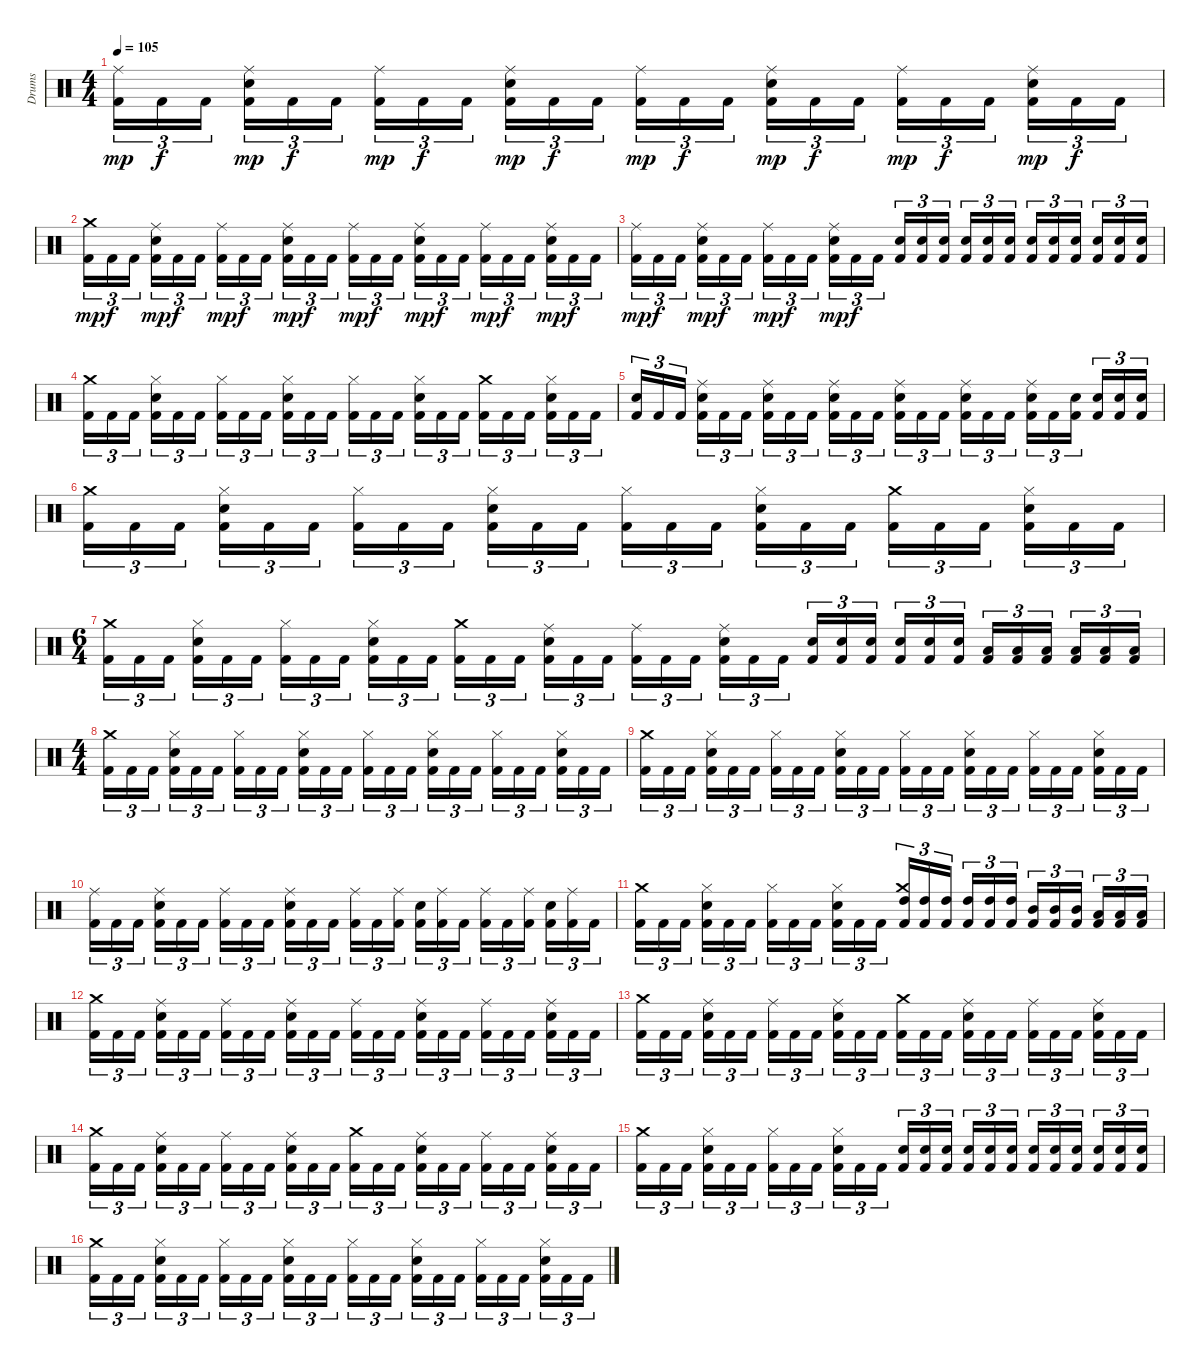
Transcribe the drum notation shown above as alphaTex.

\track ("Drums" "Drums") {instrument percussion}
\staff {score}
\articulation defaults
\ts (4 4)
\tempo 105
\clef neutral
\ks c
("Ride (middle)" "Kick (hit) 2").16{tu (3 2) dy mp} "Kick (hit) 2".16{tu (3 2) dy f} "Kick (hit) 2".16{tu (3 2)} ("Ride (middle)" "Electric Snare (hit)" "Kick (hit) 2").16{tu (3 2) dy mp} "Kick (hit) 2".16{tu (3 2) dy f} "Kick (hit) 2".16{tu (3 2)} ("Ride (middle)" "Kick (hit) 2").16{tu (3 2) dy mp} "Kick (hit) 2".16{tu (3 2) dy f} "Kick (hit) 2".16{tu (3 2)} ("Ride (middle)" "Electric Snare (hit)" "Kick (hit) 2").16{tu (3 2) dy mp} "Kick (hit) 2".16{tu (3 2) dy f} "Kick (hit) 2".16{tu (3 2)} ("Ride (middle)" "Kick (hit) 2").16{tu (3 2) dy mp} "Kick (hit) 2".16{tu (3 2) dy f} "Kick (hit) 2".16{tu (3 2)} ("Ride (middle)" "Electric Snare (hit)" "Kick (hit) 2").16{tu (3 2) dy mp} "Kick (hit) 2".16{tu (3 2) dy f} "Kick (hit) 2".16{tu (3 2)} ("Ride (middle)" "Kick (hit) 2").16{tu (3 2) dy mp} "Kick (hit) 2".16{tu (3 2) dy f} "Kick (hit) 2".16{tu (3 2)} ("Ride (middle)" "Electric Snare (hit)" "Kick (hit) 2").16{tu (3 2) dy mp} "Kick (hit) 2".16{tu (3 2) dy f} "Kick (hit) 2".16{tu (3 2)} |
("Crash medium (hit)" "Kick (hit) 2").16{tu (3 2) dy mp} "Kick (hit) 2".16{tu (3 2) dy f} "Kick (hit) 2".16{tu (3 2)} ("Ride (middle)" "Electric Snare (hit)" "Kick (hit) 2").16{tu (3 2) dy mp} "Kick (hit) 2".16{tu (3 2) dy f} "Kick (hit) 2".16{tu (3 2)} ("Ride (middle)" "Kick (hit) 2").16{tu (3 2) dy mp} "Kick (hit) 2".16{tu (3 2) dy f} "Kick (hit) 2".16{tu (3 2)} ("Ride (middle)" "Electric Snare (hit)" "Kick (hit) 2").16{tu (3 2) dy mp} "Kick (hit) 2".16{tu (3 2) dy f} "Kick (hit) 2".16{tu (3 2)} ("Ride (middle)" "Kick (hit) 2").16{tu (3 2) dy mp} "Kick (hit) 2".16{tu (3 2) dy f} "Kick (hit) 2".16{tu (3 2)} ("Ride (middle)" "Electric Snare (hit)" "Kick (hit) 2").16{tu (3 2) dy mp} "Kick (hit) 2".16{tu (3 2) dy f} "Kick (hit) 2".16{tu (3 2)} ("Ride (middle)" "Kick (hit) 2").16{tu (3 2) dy mp} "Kick (hit) 2".16{tu (3 2) dy f} "Kick (hit) 2".16{tu (3 2)} ("Ride (middle)" "Electric Snare (hit)" "Kick (hit) 2").16{tu (3 2) dy mp} "Kick (hit) 2".16{tu (3 2) dy f} "Kick (hit) 2".16{tu (3 2)} |
("Ride (middle)" "Kick (hit) 2").16{tu (3 2) dy mp} "Kick (hit) 2".16{tu (3 2) dy f} "Kick (hit) 2".16{tu (3 2)} ("Ride (middle)" "Electric Snare (hit)" "Kick (hit) 2").16{tu (3 2) dy mp} "Kick (hit) 2".16{tu (3 2) dy f} "Kick (hit) 2".16{tu (3 2)} ("Ride (middle)" "Kick (hit) 2").16{tu (3 2) dy mp} "Kick (hit) 2".16{tu (3 2) dy f} "Kick (hit) 2".16{tu (3 2)} ("Ride (middle)" "Electric Snare (hit)" "Kick (hit) 2").16{tu (3 2) dy mp} "Kick (hit) 2".16{tu (3 2) dy f} "Kick (hit) 2".16{tu (3 2)} ("Electric Snare (hit)" "Kick (hit) 2").16{tu (3 2)} ("Electric Snare (hit)" "Kick (hit) 2").16{tu (3 2)} ("Electric Snare (hit)" "Kick (hit) 2").16{tu (3 2)} ("Electric Snare (hit)" "Kick (hit) 2").16{tu (3 2)} ("Electric Snare (hit)" "Kick (hit) 2").16{tu (3 2)} ("Electric Snare (hit)" "Kick (hit) 2").16{tu (3 2)} ("Electric Snare (hit)" "Kick (hit) 2").16{tu (3 2)} ("Electric Snare (hit)" "Kick (hit) 2").16{tu (3 2)} ("Electric Snare (hit)" "Kick (hit) 2").16{tu (3 2)} ("Electric Snare (hit)" "Kick (hit) 2").16{tu (3 2)} ("Electric Snare (hit)" "Kick (hit) 2").16{tu (3 2)} ("Electric Snare (hit)" "Kick (hit) 2").16{tu (3 2)} |
("Crash medium (hit)" "Kick (hit) 2").16{tu (3 2)} "Kick (hit) 2".16{tu (3 2)} "Kick (hit) 2".16{tu (3 2)} ("Hi-Hat (closed)" "Electric Snare (hit)" "Kick (hit) 2").16{tu (3 2)} "Kick (hit) 2".16{tu (3 2)} "Kick (hit) 2".16{tu (3 2)} ("Hi-Hat (closed)" "Kick (hit) 2").16{tu (3 2)} "Kick (hit) 2".16{tu (3 2)} "Kick (hit) 2".16{tu (3 2)} ("Hi-Hat (closed)" "Electric Snare (hit)" "Kick (hit) 2").16{tu (3 2)} "Kick (hit) 2".16{tu (3 2)} "Kick (hit) 2".16{tu (3 2)} ("Hi-Hat (closed)" "Kick (hit) 2").16{tu (3 2)} "Kick (hit) 2".16{tu (3 2)} "Kick (hit) 2".16{tu (3 2)} ("Hi-Hat (closed)" "Electric Snare (hit)" "Kick (hit) 2").16{tu (3 2)} "Kick (hit) 2".16{tu (3 2)} "Kick (hit) 2".16{tu (3 2)} ("Crash medium (hit)" "Kick (hit) 2").16{tu (3 2)} "Kick (hit) 2".16{tu (3 2)} "Kick (hit) 2".16{tu (3 2)} ("Hi-Hat (closed)" "Electric Snare (hit)" "Kick (hit) 2").16{tu (3 2)} "Kick (hit) 2".16{tu (3 2)} "Kick (hit) 2".16{tu (3 2)} |
("Electric Snare (hit)" "Kick (hit) 2").16{tu (3 2)} "Kick (hit) 2".16{tu (3 2)} "Kick (hit) 2".16{tu (3 2)} ("Ride (middle)" "Electric Snare (hit)" "Kick (hit) 2").16{tu (3 2)} "Kick (hit) 2".16{tu (3 2)} "Kick (hit) 2".16{tu (3 2)} ("Ride (middle)" "Electric Snare (hit)" "Kick (hit) 2").16{tu (3 2)} "Kick (hit) 2".16{tu (3 2)} "Kick (hit) 2".16{tu (3 2)} ("Ride (middle)" "Electric Snare (hit)" "Kick (hit) 2").16{tu (3 2)} "Kick (hit) 2".16{tu (3 2)} "Kick (hit) 2".16{tu (3 2)} ("Ride (middle)" "Electric Snare (hit)" "Kick (hit) 2").16{tu (3 2)} "Kick (hit) 2".16{tu (3 2)} "Kick (hit) 2".16{tu (3 2)} ("Ride (middle)" "Electric Snare (hit)" "Kick (hit) 2").16{tu (3 2)} "Kick (hit) 2".16{tu (3 2)} "Kick (hit) 2".16{tu (3 2)} ("Ride (middle)" "Electric Snare (hit)" "Kick (hit) 2").16{tu (3 2)} "Kick (hit) 2".16{tu (3 2)} ("Electric Snare (hit)" "Kick (hit) 2").16{tu (3 2)} ("Electric Snare (hit)" "Kick (hit) 2").16{tu (3 2)} ("Electric Snare (hit)" "Kick (hit) 2").16{tu (3 2)} ("Electric Snare (hit)" "Kick (hit) 2").16{tu (3 2)} |
("Crash medium (hit)" "Kick (hit) 2").16{tu (3 2)} "Kick (hit) 2".16{tu (3 2)} "Kick (hit) 2".16{tu (3 2)} ("Hi-Hat (closed)" "Electric Snare (hit)" "Kick (hit) 2").16{tu (3 2)} "Kick (hit) 2".16{tu (3 2)} "Kick (hit) 2".16{tu (3 2)} ("Hi-Hat (closed)" "Kick (hit) 2").16{tu (3 2)} "Kick (hit) 2".16{tu (3 2)} "Kick (hit) 2".16{tu (3 2)} ("Hi-Hat (closed)" "Electric Snare (hit)" "Kick (hit) 2").16{tu (3 2)} "Kick (hit) 2".16{tu (3 2)} "Kick (hit) 2".16{tu (3 2)} ("Hi-Hat (closed)" "Kick (hit) 2").16{tu (3 2)} "Kick (hit) 2".16{tu (3 2)} "Kick (hit) 2".16{tu (3 2)} ("Hi-Hat (closed)" "Electric Snare (hit)" "Kick (hit) 2").16{tu (3 2)} "Kick (hit) 2".16{tu (3 2)} "Kick (hit) 2".16{tu (3 2)} ("Crash medium (hit)" "Kick (hit) 2").16{tu (3 2)} "Kick (hit) 2".16{tu (3 2)} "Kick (hit) 2".16{tu (3 2)} ("Hi-Hat (closed)" "Electric Snare (hit)" "Kick (hit) 2").16{tu (3 2)} "Kick (hit) 2".16{tu (3 2)} "Kick (hit) 2".16{tu (3 2)} |
\ts (6 4)
("Crash medium (hit)" "Kick (hit) 2").16{tu (3 2)} "Kick (hit) 2".16{tu (3 2)} "Kick (hit) 2".16{tu (3 2)} ("Hi-Hat (closed)" "Electric Snare (hit)" "Kick (hit) 2").16{tu (3 2)} "Kick (hit) 2".16{tu (3 2)} "Kick (hit) 2".16{tu (3 2)} ("Hi-Hat (closed)" "Kick (hit) 2").16{tu (3 2)} "Kick (hit) 2".16{tu (3 2)} "Kick (hit) 2".16{tu (3 2)} ("Hi-Hat (closed)" "Electric Snare (hit)" "Kick (hit) 2").16{tu (3 2)} "Kick (hit) 2".16{tu (3 2)} "Kick (hit) 2".16{tu (3 2)} ("Crash medium (hit)" "Kick (hit) 2").16{tu (3 2)} "Kick (hit) 2".16{tu (3 2)} "Kick (hit) 2".16{tu (3 2)} ("Ride (middle)" "Electric Snare (hit)" "Kick (hit) 2").16{tu (3 2)} "Kick (hit) 2".16{tu (3 2)} "Kick (hit) 2".16{tu (3 2)} ("Ride (middle)" "Kick (hit) 2").16{tu (3 2)} "Kick (hit) 2".16{tu (3 2)} "Kick (hit) 2".16{tu (3 2)} ("Ride (middle)" "Electric Snare (hit)" "Kick (hit) 2").16{tu (3 2)} "Kick (hit) 2".16{tu (3 2)} "Kick (hit) 2".16{tu (3 2)} ("Electric Snare (hit)" "Kick (hit) 2").16{tu (3 2)} ("Electric Snare (hit)" "Kick (hit) 2").16{tu (3 2)} ("Electric Snare (hit)" "Kick (hit) 2").16{tu (3 2)} ("Electric Snare (hit)" "Kick (hit) 2").16{tu (3 2)} ("Electric Snare (hit)" "Kick (hit) 2").16{tu (3 2)} ("Electric Snare (hit)" "Kick (hit) 2").16{tu (3 2)} ("Low Tom (hit)" "Kick (hit) 2").16{tu (3 2)} ("Low Tom (hit)" "Kick (hit) 2").16{tu (3 2)} ("Low Tom (hit)" "Kick (hit) 2").16{tu (3 2)} ("Low Tom (hit)" "Kick (hit) 2").16{tu (3 2)} ("Low Tom (hit)" "Kick (hit) 2").16{tu (3 2)} ("Low Tom (hit)" "Kick (hit) 2").16{tu (3 2)} |
\ts (4 4)
("Crash medium (hit)" "Kick (hit) 2").16{tu (3 2)} "Kick (hit) 2".16{tu (3 2)} "Kick (hit) 2".16{tu (3 2)} ("Hi-Hat (closed)" "Electric Snare (hit)" "Kick (hit) 2").16{tu (3 2)} "Kick (hit) 2".16{tu (3 2)} "Kick (hit) 2".16{tu (3 2)} ("Hi-Hat (closed)" "Kick (hit) 2").16{tu (3 2)} "Kick (hit) 2".16{tu (3 2)} "Kick (hit) 2".16{tu (3 2)} ("Hi-Hat (closed)" "Electric Snare (hit)" "Kick (hit) 2").16{tu (3 2)} "Kick (hit) 2".16{tu (3 2)} "Kick (hit) 2".16{tu (3 2)} ("Hi-Hat (closed)" "Kick (hit) 2").16{tu (3 2)} "Kick (hit) 2".16{tu (3 2)} "Kick (hit) 2".16{tu (3 2)} ("Hi-Hat (closed)" "Electric Snare (hit)" "Kick (hit) 2").16{tu (3 2)} "Kick (hit) 2".16{tu (3 2)} "Kick (hit) 2".16{tu (3 2)} ("Hi-Hat (closed)" "Kick (hit) 2").16{tu (3 2)} "Kick (hit) 2".16{tu (3 2)} "Kick (hit) 2".16{tu (3 2)} ("Hi-Hat (closed)" "Electric Snare (hit)" "Kick (hit) 2").16{tu (3 2)} "Kick (hit) 2".16{tu (3 2)} "Kick (hit) 2".16{tu (3 2)} |
("Crash medium (hit)" "Kick (hit) 2").16{tu (3 2)} "Kick (hit) 2".16{tu (3 2)} "Kick (hit) 2".16{tu (3 2)} ("Hi-Hat (closed)" "Electric Snare (hit)" "Kick (hit) 2").16{tu (3 2)} "Kick (hit) 2".16{tu (3 2)} "Kick (hit) 2".16{tu (3 2)} ("Hi-Hat (closed)" "Kick (hit) 2").16{tu (3 2)} "Kick (hit) 2".16{tu (3 2)} "Kick (hit) 2".16{tu (3 2)} ("Hi-Hat (closed)" "Electric Snare (hit)" "Kick (hit) 2").16{tu (3 2)} "Kick (hit) 2".16{tu (3 2)} "Kick (hit) 2".16{tu (3 2)} ("Hi-Hat (closed)" "Kick (hit) 2").16{tu (3 2)} "Kick (hit) 2".16{tu (3 2)} "Kick (hit) 2".16{tu (3 2)} ("Hi-Hat (closed)" "Electric Snare (hit)" "Kick (hit) 2").16{tu (3 2)} "Kick (hit) 2".16{tu (3 2)} "Kick (hit) 2".16{tu (3 2)} ("Hi-Hat (closed)" "Kick (hit) 2").16{tu (3 2)} "Kick (hit) 2".16{tu (3 2)} "Kick (hit) 2".16{tu (3 2)} ("Hi-Hat (closed)" "Electric Snare (hit)" "Kick (hit) 2").16{tu (3 2)} "Kick (hit) 2".16{tu (3 2)} "Kick (hit) 2".16{tu (3 2)} |
("Ride (middle)" "Kick (hit) 2").16{tu (3 2)} "Kick (hit) 2".16{tu (3 2)} "Kick (hit) 2".16{tu (3 2)} ("Ride (middle)" "Electric Snare (hit)" "Kick (hit) 2").16{tu (3 2)} "Kick (hit) 2".16{tu (3 2)} "Kick (hit) 2".16{tu (3 2)} ("Ride (middle)" "Kick (hit) 2").16{tu (3 2)} "Kick (hit) 2".16{tu (3 2)} "Kick (hit) 2".16{tu (3 2)} ("Ride (middle)" "Electric Snare (hit)" "Kick (hit) 2").16{tu (3 2)} "Kick (hit) 2".16{tu (3 2)} "Kick (hit) 2".16{tu (3 2)} ("Ride (middle)" "Kick (hit) 2").16{tu (3 2)} "Kick (hit) 2".16{tu (3 2)} ("Ride (middle)" "Kick (hit) 2").16{tu (3 2)} ("Electric Snare (hit)" "Kick (hit) 2").16{tu (3 2)} ("Ride (middle)" "Kick (hit) 2").16{tu (3 2)} "Kick (hit) 2".16{tu (3 2)} ("Ride (middle)" "Kick (hit) 2").16{tu (3 2)} "Kick (hit) 2".16{tu (3 2)} ("Ride (middle)" "Kick (hit) 2").16{tu (3 2)} ("Electric Snare (hit)" "Kick (hit) 2").16{tu (3 2)} ("Ride (middle)" "Kick (hit) 2").16{tu (3 2)} "Kick (hit) 2".16{tu (3 2)} |
("Crash medium (hit)" "Kick (hit) 2").16{tu (3 2)} "Kick (hit) 2".16{tu (3 2)} "Kick (hit) 2".16{tu (3 2)} ("Hi-Hat (closed)" "Electric Snare (hit)" "Kick (hit) 2").16{tu (3 2)} "Kick (hit) 2".16{tu (3 2)} "Kick (hit) 2".16{tu (3 2)} ("Hi-Hat (closed)" "Kick (hit) 2").16{tu (3 2)} "Kick (hit) 2".16{tu (3 2)} "Kick (hit) 2".16{tu (3 2)} ("Hi-Hat (closed)" "Electric Snare (hit)" "Kick (hit) 2").16{tu (3 2)} "Kick (hit) 2".16{tu (3 2)} "Kick (hit) 2".16{tu (3 2)} ("Crash medium (hit)" "High Tom (hit)" "Kick (hit) 2").16{tu (3 2)} ("High Tom (hit)" "Kick (hit) 2").16{tu (3 2)} ("High Tom (hit)" "Kick (hit) 2").16{tu (3 2)} ("High Tom (hit)" "Kick (hit) 2").16{tu (3 2)} ("High Tom (hit)" "Kick (hit) 2").16{tu (3 2)} ("High Tom (hit)" "Kick (hit) 2").16{tu (3 2)} ("Mid Tom (hit)" "Kick (hit) 2").16{tu (3 2)} ("Mid Tom (hit)" "Kick (hit) 2").16{tu (3 2)} ("Mid Tom (hit)" "Kick (hit) 2").16{tu (3 2)} ("Low Tom (hit)" "Kick (hit) 2").16{tu (3 2)} ("Low Tom (hit)" "Kick (hit) 2").16{tu (3 2)} ("Low Tom (hit)" "Kick (hit) 2").16{tu (3 2)} |
("Crash medium (hit)" "Kick (hit) 2").16{tu (3 2)} "Kick (hit) 2".16{tu (3 2)} "Kick (hit) 2".16{tu (3 2)} ("Ride (middle)" "Electric Snare (hit)" "Kick (hit) 2").16{tu (3 2)} "Kick (hit) 2".16{tu (3 2)} "Kick (hit) 2".16{tu (3 2)} ("Ride (middle)" "Kick (hit) 2").16{tu (3 2)} "Kick (hit) 2".16{tu (3 2)} "Kick (hit) 2".16{tu (3 2)} ("Ride (middle)" "Electric Snare (hit)" "Kick (hit) 2").16{tu (3 2)} "Kick (hit) 2".16{tu (3 2)} "Kick (hit) 2".16{tu (3 2)} ("Ride (middle)" "Kick (hit) 2").16{tu (3 2)} "Kick (hit) 2".16{tu (3 2)} "Kick (hit) 2".16{tu (3 2)} ("Ride (middle)" "Electric Snare (hit)" "Kick (hit) 2").16{tu (3 2)} "Kick (hit) 2".16{tu (3 2)} "Kick (hit) 2".16{tu (3 2)} ("Ride (middle)" "Kick (hit) 2").16{tu (3 2)} "Kick (hit) 2".16{tu (3 2)} "Kick (hit) 2".16{tu (3 2)} ("Ride (middle)" "Electric Snare (hit)" "Kick (hit) 2").16{tu (3 2)} "Kick (hit) 2".16{tu (3 2)} "Kick (hit) 2".16{tu (3 2)} |
("Crash medium (hit)" "Kick (hit) 2").16{tu (3 2)} "Kick (hit) 2".16{tu (3 2)} "Kick (hit) 2".16{tu (3 2)} ("Ride (middle)" "Electric Snare (hit)" "Kick (hit) 2").16{tu (3 2)} "Kick (hit) 2".16{tu (3 2)} "Kick (hit) 2".16{tu (3 2)} ("Ride (middle)" "Kick (hit) 2").16{tu (3 2)} "Kick (hit) 2".16{tu (3 2)} "Kick (hit) 2".16{tu (3 2)} ("Ride (middle)" "Electric Snare (hit)" "Kick (hit) 2").16{tu (3 2)} "Kick (hit) 2".16{tu (3 2)} "Kick (hit) 2".16{tu (3 2)} ("Crash medium (hit)" "Kick (hit) 2").16{tu (3 2)} "Kick (hit) 2".16{tu (3 2)} "Kick (hit) 2".16{tu (3 2)} ("Ride (middle)" "Electric Snare (hit)" "Kick (hit) 2").16{tu (3 2)} "Kick (hit) 2".16{tu (3 2)} "Kick (hit) 2".16{tu (3 2)} ("Ride (middle)" "Kick (hit) 2").16{tu (3 2)} "Kick (hit) 2".16{tu (3 2)} "Kick (hit) 2".16{tu (3 2)} ("Ride (middle)" "Electric Snare (hit)" "Kick (hit) 2").16{tu (3 2)} "Kick (hit) 2".16{tu (3 2)} "Kick (hit) 2".16{tu (3 2)} |
("Crash medium (hit)" "Kick (hit) 2").16{tu (3 2)} "Kick (hit) 2".16{tu (3 2)} "Kick (hit) 2".16{tu (3 2)} ("Ride (middle)" "Electric Snare (hit)" "Kick (hit) 2").16{tu (3 2)} "Kick (hit) 2".16{tu (3 2)} "Kick (hit) 2".16{tu (3 2)} ("Ride (middle)" "Kick (hit) 2").16{tu (3 2)} "Kick (hit) 2".16{tu (3 2)} "Kick (hit) 2".16{tu (3 2)} ("Ride (middle)" "Electric Snare (hit)" "Kick (hit) 2").16{tu (3 2)} "Kick (hit) 2".16{tu (3 2)} "Kick (hit) 2".16{tu (3 2)} ("Crash medium (hit)" "Kick (hit) 2").16{tu (3 2)} "Kick (hit) 2".16{tu (3 2)} "Kick (hit) 2".16{tu (3 2)} ("Ride (middle)" "Electric Snare (hit)" "Kick (hit) 2").16{tu (3 2)} "Kick (hit) 2".16{tu (3 2)} "Kick (hit) 2".16{tu (3 2)} ("Ride (middle)" "Kick (hit) 2").16{tu (3 2)} "Kick (hit) 2".16{tu (3 2)} "Kick (hit) 2".16{tu (3 2)} ("Ride (middle)" "Electric Snare (hit)" "Kick (hit) 2").16{tu (3 2)} "Kick (hit) 2".16{tu (3 2)} "Kick (hit) 2".16{tu (3 2)} |
("Crash medium (hit)" "Kick (hit) 2").16{tu (3 2)} "Kick (hit) 2".16{tu (3 2)} "Kick (hit) 2".16{tu (3 2)} ("Hi-Hat (closed)" "Electric Snare (hit)" "Kick (hit) 2").16{tu (3 2)} "Kick (hit) 2".16{tu (3 2)} "Kick (hit) 2".16{tu (3 2)} ("Hi-Hat (closed)" "Kick (hit) 2").16{tu (3 2)} "Kick (hit) 2".16{tu (3 2)} "Kick (hit) 2".16{tu (3 2)} ("Hi-Hat (closed)" "Electric Snare (hit)" "Kick (hit) 2").16{tu (3 2)} "Kick (hit) 2".16{tu (3 2)} "Kick (hit) 2".16{tu (3 2)} ("Electric Snare (hit)" "Kick (hit) 2").16{tu (3 2)} ("Electric Snare (hit)" "Kick (hit) 2").16{tu (3 2)} ("Electric Snare (hit)" "Kick (hit) 2").16{tu (3 2)} ("Electric Snare (hit)" "Kick (hit) 2").16{tu (3 2)} ("Electric Snare (hit)" "Kick (hit) 2").16{tu (3 2)} ("Electric Snare (hit)" "Kick (hit) 2").16{tu (3 2)} ("Electric Snare (hit)" "Kick (hit) 2").16{tu (3 2)} ("Electric Snare (hit)" "Kick (hit) 2").16{tu (3 2)} ("Electric Snare (hit)" "Kick (hit) 2").16{tu (3 2)} ("Electric Snare (hit)" "Kick (hit) 2").16{tu (3 2)} ("Electric Snare (hit)" "Kick (hit) 2").16{tu (3 2)} ("Electric Snare (hit)" "Kick (hit) 2").16{tu (3 2)} |
("Crash medium (hit)" "Kick (hit) 2").16{tu (3 2)} "Kick (hit) 2".16{tu (3 2)} "Kick (hit) 2".16{tu (3 2)} ("Hi-Hat (closed)" "Electric Snare (hit)" "Kick (hit) 2").16{tu (3 2)} "Kick (hit) 2".16{tu (3 2)} "Kick (hit) 2".16{tu (3 2)} ("Hi-Hat (closed)" "Kick (hit) 2").16{tu (3 2)} "Kick (hit) 2".16{tu (3 2)} "Kick (hit) 2".16{tu (3 2)} ("Hi-Hat (closed)" "Electric Snare (hit)" "Kick (hit) 2").16{tu (3 2)} "Kick (hit) 2".16{tu (3 2)} "Kick (hit) 2".16{tu (3 2)} ("Hi-Hat (closed)" "Kick (hit) 2").16{tu (3 2)} "Kick (hit) 2".16{tu (3 2)} "Kick (hit) 2".16{tu (3 2)} ("Hi-Hat (closed)" "Electric Snare (hit)" "Kick (hit) 2").16{tu (3 2)} "Kick (hit) 2".16{tu (3 2)} "Kick (hit) 2".16{tu (3 2)} ("Hi-Hat (closed)" "Kick (hit) 2").16{tu (3 2)} "Kick (hit) 2".16{tu (3 2)} "Kick (hit) 2".16{tu (3 2)} ("Hi-Hat (closed)" "Electric Snare (hit)" "Kick (hit) 2").16{tu (3 2)} "Kick (hit) 2".16{tu (3 2)} "Kick (hit) 2".16{tu (3 2)}
